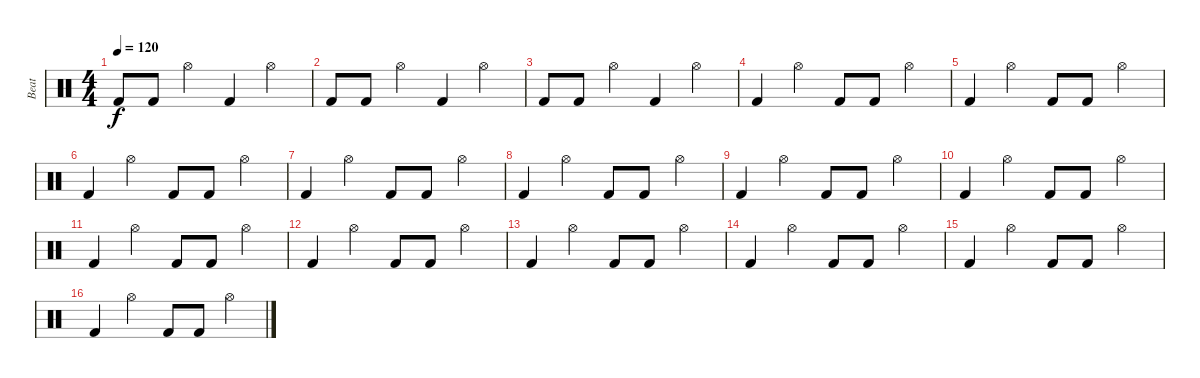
\track ("Beat" "Beat") {instrument percussion}
\staff {score}
\articulation defaults
\ts (4 4)
\tempo 120
\clef neutral
\ks c "Kick (hit) 2".8{dy f} "Kick (hit) 2".8 "Hi-Hat (open)".4 "Kick (hit) 2".4 "Hi-Hat (open)".4
|
"Kick (hit) 2".8 "Kick (hit) 2".8 "Hi-Hat (open)".4 "Kick (hit) 2".4 "Hi-Hat (open)".4 |
"Kick (hit) 2".8 "Kick (hit) 2".8 "Hi-Hat (open)".4 "Kick (hit) 2".4 "Hi-Hat (open)".4 |
"Kick (hit) 2".4 "Hi-Hat (open)".4 "Kick (hit) 2".8 "Kick (hit) 2".8 "Hi-Hat (open)".4 |
"Kick (hit) 2".4 "Hi-Hat (open)".4 "Kick (hit) 2".8 "Kick (hit) 2".8 "Hi-Hat (open)".4 |
"Kick (hit) 2".4 "Hi-Hat (open)".4 "Kick (hit) 2".8 "Kick (hit) 2".8 "Hi-Hat (open)".4 |
"Kick (hit) 2".4 "Hi-Hat (open)".4 "Kick (hit) 2".8 "Kick (hit) 2".8 "Hi-Hat (open)".4 |
"Kick (hit) 2".4 "Hi-Hat (open)".4 "Kick (hit) 2".8 "Kick (hit) 2".8 "Hi-Hat (open)".4 |
"Kick (hit) 2".4 "Hi-Hat (open)".4 "Kick (hit) 2".8 "Kick (hit) 2".8 "Hi-Hat (open)".4 |
"Kick (hit) 2".4 "Hi-Hat (open)".4 "Kick (hit) 2".8 "Kick (hit) 2".8 "Hi-Hat (open)".4 |
"Kick (hit) 2".4 "Hi-Hat (open)".4 "Kick (hit) 2".8 "Kick (hit) 2".8 "Hi-Hat (open)".4 |
"Kick (hit) 2".4 "Hi-Hat (open)".4 "Kick (hit) 2".8 "Kick (hit) 2".8 "Hi-Hat (open)".4 |
"Kick (hit) 2".4 "Hi-Hat (open)".4 "Kick (hit) 2".8 "Kick (hit) 2".8 "Hi-Hat (open)".4 |
"Kick (hit) 2".4 "Hi-Hat (open)".4 "Kick (hit) 2".8 "Kick (hit) 2".8 "Hi-Hat (open)".4 |
"Kick (hit) 2".4 "Hi-Hat (open)".4 "Kick (hit) 2".8 "Kick (hit) 2".8 "Hi-Hat (open)".4 |
"Kick (hit) 2".4 "Hi-Hat (open)".4 "Kick (hit) 2".8 "Kick (hit) 2".8 "Hi-Hat (open)".4
